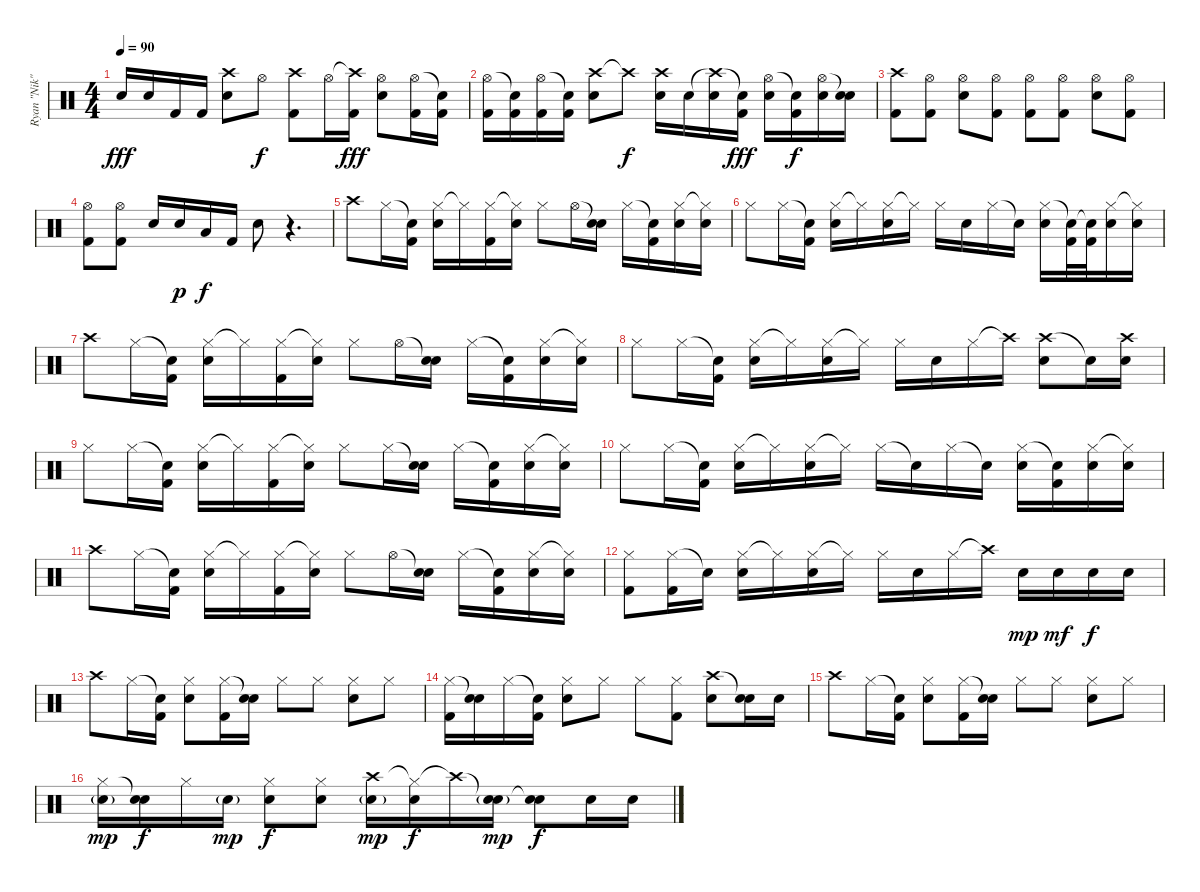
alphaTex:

\track ("Ryan \"Nik\" Vikedal (drums)" "Ryan \"Nik\"") {instrument percussion}
\staff {score}
\articulation defaults
\ts (4 4)
\tempo 90
\clef neutral
\ks c "Electric Snare (hit)".16{dy fff} "Electric Snare (hit)".16 "Kick (hit) 2".16 "Kick (hit) 2".16
("Crash high (hit)" "Electric Snare (hit)").8 "Hi-Hat (open)".8{dy f} ("Crash high (hit)" "Kick (hit) 2").8 "Hi-Hat (open)".16 ("Crash high (hit)"{t} "Kick (hit) 2").16{dy fff} ("Hi-Hat (open)" "Electric Snare (hit)").8 ("Hi-Hat (open)" "Kick (hit) 2").16 ("Snare (hit)"{t} "Kick (hit) 2").16 |
("Hi-Hat (open)" "Kick (hit) 2").16 ("Snare (hit)"{t} "Kick (hit) 2").16 ("Hi-Hat (open)" "Kick (hit) 2").16 ("Snare (hit)"{t} "Kick (hit) 2").16 ("Crash high (hit)" "Electric Snare (hit)").8 "Crash high (hit)"{t}.8{dy f} ("Crash high (hit)" "Electric Snare (hit)").16 "Electric Snare (hit)".16 ("Crash high (hit)"{t} "Electric Snare (hit)").16 ("Snare (hit)"{t} "Kick (hit) 2").16{dy fff} ("Hi-Hat (open)" "Electric Snare (hit)").16 ("Snare (hit)"{t} "Kick (hit) 2").16{dy f} ("Hi-Hat (open)" "Electric Snare (hit)").16 ("Snare (hit)"{t} "Electric Snare (hit)").16 |
("Crash high (hit)" "Kick (hit) 2").8 ("Hi-Hat (open)" "Kick (hit) 2").8 ("Hi-Hat (open)" "Electric Snare (hit)").8 ("Hi-Hat (open)" "Kick (hit) 2").8 ("Hi-Hat (open)" "Kick (hit) 2").8 ("Hi-Hat (open)" "Kick (hit) 2").8 ("Hi-Hat (open)" "Electric Snare (hit)").8 ("Hi-Hat (open)" "Kick (hit) 2").8 |
("Hi-Hat (open)" "Kick (hit) 2").8 ("Hi-Hat (open)" "Kick (hit) 2").8 "Electric Snare (hit)".16 "Electric Snare (hit)".16{dy p} "Low Tom (hit)".16{dy f} "Kick (hit) 2".16 "Electric Snare (hit)".8 r.4{d} |
"Crash high (hit)".8 "Hi-Hat (closed)".16 ("Snare (hit)"{t} "Kick (hit) 2").16 ("Hi-Hat (closed)" "Electric Snare (hit)").16 "Hi-Hat (closed)"{t}.16 ("Hi-Hat (closed)" "Kick (hit) 2").16 ("Hi-Hat (closed)"{t} "Electric Snare (hit)").16 "Hi-Hat (closed)".8 "Hi-Hat (open)".16 ("Snare (hit)"{t} "Electric Snare (hit)").16 "Hi-Hat (closed)".16 ("Snare (hit)"{t} "Kick (hit) 2").16 ("Hi-Hat (closed)" "Electric Snare (hit)").16 ("Hi-Hat (closed)"{t} "Electric Snare (hit)").16 |
"Hi-Hat (closed)".8 "Hi-Hat (closed)".16 ("Snare (hit)"{t} "Kick (hit) 2").16 ("Hi-Hat (closed)" "Electric Snare (hit)").16 "Hi-Hat (closed)"{t}.16 ("Hi-Hat (closed)" "Electric Snare (hit)").16 "Hi-Hat (closed)"{t}.16 "Hi-Hat (closed)".16 "Electric Snare (hit)".16 "Hi-Hat (closed)".16 "Snare (hit)"{t}.16 ("Hi-Hat (closed)" "Electric Snare (hit)").16 ("Snare (hit)"{t} "Kick (hit) 2").32 ("Snare (hit)"{t} "Kick (hit) 2").32 ("Hi-Hat (closed)" "Electric Snare (hit)").16 ("Hi-Hat (closed)"{t} "Electric Snare (hit)").16 |
"Crash high (hit)".8 "Hi-Hat (closed)".16 ("Snare (hit)"{t} "Kick (hit) 2").16 ("Hi-Hat (closed)" "Electric Snare (hit)").16 "Hi-Hat (closed)"{t}.16 ("Hi-Hat (closed)" "Kick (hit) 2").16 ("Hi-Hat (closed)"{t} "Electric Snare (hit)").16 "Hi-Hat (closed)".8 "Hi-Hat (open)".16 ("Snare (hit)"{t} "Electric Snare (hit)").16 "Hi-Hat (closed)".16 ("Snare (hit)"{t} "Kick (hit) 2").16 ("Hi-Hat (closed)" "Electric Snare (hit)").16 ("Hi-Hat (closed)"{t} "Electric Snare (hit)").16 |
"Hi-Hat (closed)".8 "Hi-Hat (closed)".16 ("Snare (hit)"{t} "Kick (hit) 2").16 ("Hi-Hat (closed)" "Electric Snare (hit)").16 "Hi-Hat (closed)"{t}.16 ("Hi-Hat (closed)" "Electric Snare (hit)").16 "Hi-Hat (closed)"{t}.16 "Hi-Hat (closed)".16 "Electric Snare (hit)".16 "Hi-Hat (closed)".16 "Crash high (hit)"{t}.16 ("Crash high (hit)" "Electric Snare (hit)").8 "Snare (hit)"{t}.16 ("Crash high (hit)" "Electric Snare (hit)").16 |
"Hi-Hat (closed)".8 "Hi-Hat (closed)".16 ("Snare (hit)"{t} "Kick (hit) 2").16 ("Hi-Hat (closed)" "Electric Snare (hit)").16 "Hi-Hat (closed)"{t}.16 ("Hi-Hat (closed)" "Kick (hit) 2").16 ("Hi-Hat (closed)"{t} "Electric Snare (hit)").16 "Hi-Hat (closed)".8 "Hi-Hat (closed)".16 ("Snare (hit)"{t} "Electric Snare (hit)").16 "Hi-Hat (closed)".16 ("Snare (hit)"{t} "Kick (hit) 2").16 ("Hi-Hat (closed)" "Electric Snare (hit)").16 ("Hi-Hat (closed)"{t} "Electric Snare (hit)").16 |
"Hi-Hat (closed)".8 "Hi-Hat (closed)".16 ("Snare (hit)"{t} "Kick (hit) 2").16 ("Hi-Hat (closed)" "Electric Snare (hit)").16 "Hi-Hat (closed)"{t}.16 ("Hi-Hat (closed)" "Electric Snare (hit)").16 "Hi-Hat (closed)"{t}.16 "Hi-Hat (closed)".16 "Snare (hit)"{t}.16 "Hi-Hat (closed)".16 "Snare (hit)"{t}.16 ("Hi-Hat (closed)" "Electric Snare (hit)").16 ("Snare (hit)"{t} "Kick (hit) 2").16 ("Hi-Hat (closed)" "Electric Snare (hit)").16 ("Hi-Hat (closed)"{t} "Electric Snare (hit)").16 |
"Crash high (hit)".8 "Hi-Hat (closed)".16 ("Snare (hit)"{t} "Kick (hit) 2").16 ("Hi-Hat (closed)" "Electric Snare (hit)").16 "Hi-Hat (closed)"{t}.16 ("Hi-Hat (closed)" "Kick (hit) 2").16 ("Hi-Hat (closed)"{t} "Electric Snare (hit)").16 "Hi-Hat (closed)".8 "Hi-Hat (open)".16 ("Snare (hit)"{t} "Electric Snare (hit)").16 "Hi-Hat (closed)".16 ("Snare (hit)"{t} "Kick (hit) 2").16 ("Hi-Hat (closed)" "Electric Snare (hit)").16 ("Hi-Hat (closed)"{t} "Electric Snare (hit)").16 |
("Hi-Hat (closed)" "Kick (hit) 2").8 ("Hi-Hat (closed)" "Kick (hit) 2").16 "Snare (hit)"{t}.16 ("Hi-Hat (closed)" "Electric Snare (hit)").16 "Hi-Hat (closed)"{t}.16 ("Hi-Hat (closed)" "Electric Snare (hit)").16 "Hi-Hat (closed)"{t}.16 "Hi-Hat (closed)".16 "Electric Snare (hit)".16 "Hi-Hat (closed)".16 "Crash high (hit)"{t}.16 "Electric Snare (hit)".16{dy mp} "Electric Snare (hit)".16{dy mf} "Electric Snare (hit)".16{dy f} "Electric Snare (hit)".16 |
"Crash high (hit)".8 "Hi-Hat (closed)".16 ("Snare (hit)"{t} "Kick (hit) 2").16 ("Hi-Hat (closed)" "Electric Snare (hit)").8 ("Hi-Hat (closed)" "Kick (hit) 2").16 ("Snare (hit)"{t} "Electric Snare (hit)").16 "Hi-Hat (closed)".8 "Hi-Hat (closed)".8 ("Hi-Hat (closed)" "Electric Snare (hit)").8 "Hi-Hat (closed)".8 |
("Hi-Hat (closed)" "Kick (hit) 2").16 ("Snare (hit)"{t} "Electric Snare (hit)").16 "Hi-Hat (closed)".16 ("Snare (hit)"{t} "Kick (hit) 2").16 ("Hi-Hat (closed)" "Electric Snare (hit)").8 "Hi-Hat (closed)".8 "Hi-Hat (closed)".8 ("Hi-Hat (closed)" "Kick (hit) 2").8 ("Crash high (hit)" "Electric Snare (hit)").8 ("Snare (hit)"{t} "Electric Snare (hit)").16 "Electric Snare (hit)".16 |
"Crash high (hit)".8 "Hi-Hat (closed)".16 ("Snare (hit)"{t} "Kick (hit) 2").16 ("Hi-Hat (closed)" "Electric Snare (hit)").8 ("Hi-Hat (closed)" "Kick (hit) 2").16 ("Snare (hit)"{t} "Electric Snare (hit)").16 "Hi-Hat (closed)".8 "Hi-Hat (closed)".8 ("Hi-Hat (closed)" "Electric Snare (hit)").8 "Hi-Hat (closed)".8 |
("Hi-Hat (closed)" "Electric Snare (hit)"{g}).16{dy mp} ("Snare (hit)"{t} "Electric Snare (hit)").16{dy f} "Hi-Hat (closed)".16 "Electric Snare (hit)"{g}.16{dy mp} ("Hi-Hat (closed)" "Electric Snare (hit)").8{dy f} ("Hi-Hat (closed)" "Electric Snare (hit)").8 ("Crash high (hit)" "Electric Snare (hit)"{g}).16{dy mp} ("Hi-Hat (closed)"{t} "Electric Snare (hit)").16{dy f} "Crash high (hit)"{t}.16 ("Snare (hit)"{t} "Electric Snare (hit)"{g}).16{dy mp} ("Snare (hit)"{t} "Electric Snare (hit)").8{dy f} "Electric Snare (hit)".16 "Electric Snare (hit)".16
